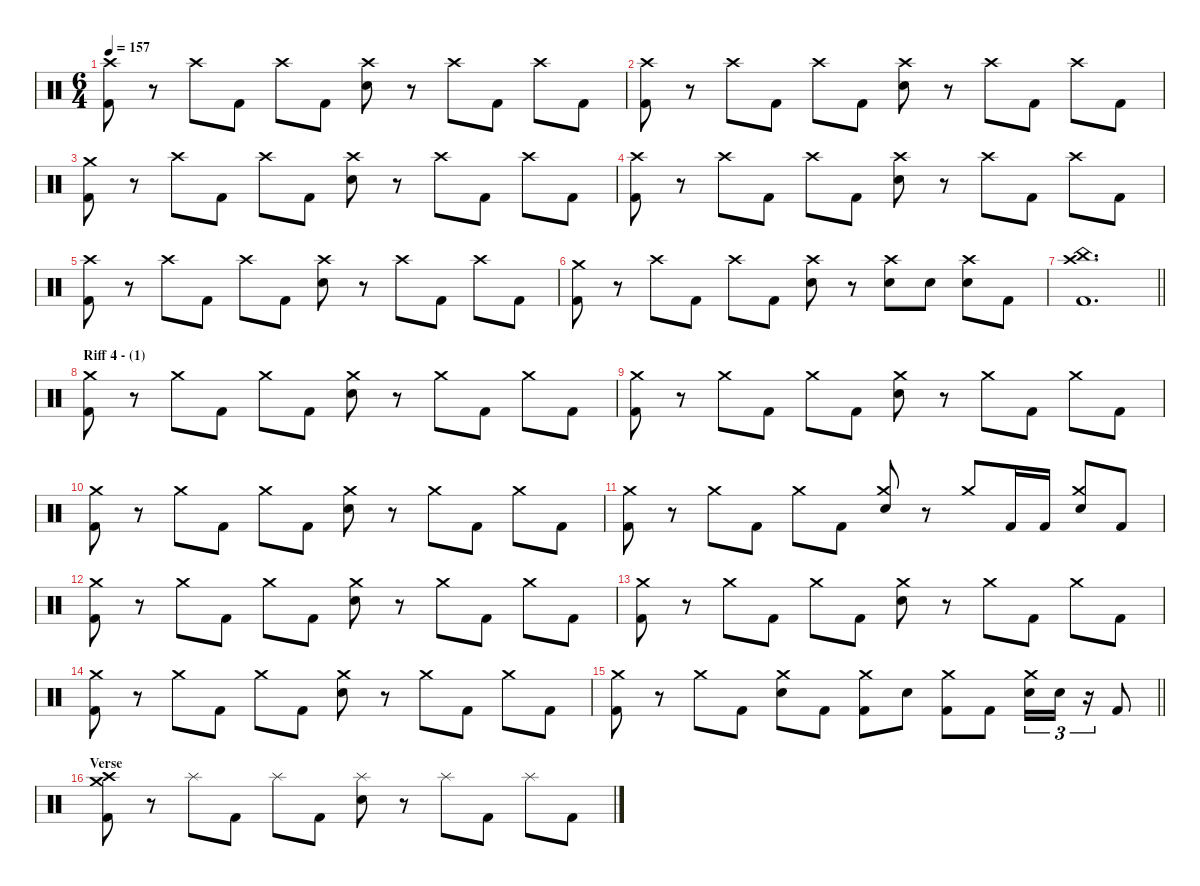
\defaultSystemsLayout 4
\hideDynamics
\bracketExtendMode nobrackets
\singleTrackTrackNamePolicy hidden
\multiTrackTrackNamePolicy hidden
\firstSystemTrackNameMode fullname
\firstSystemTrackNameOrientation horizontal
\otherSystemsTrackNameOrientation horizontal
\track ("Drums" "drm.") {defaultSystemsLayout 4 instrument percussion}
\staff {score}
\articulation defaults
\ts (6 4)
\tempo 157
\clef neutral
\ks c
("Crash high (hit)" "Kick (hit) 2").8{dy f beam Down} r.8{beam Down} "Crash high (hit)".8{beam Down} "Kick (hit) 2".8{beam Down} "Crash high (hit)".8{beam Down} "Kick (hit) 2".8{beam Down} ("Crash high (hit)" "Snare (hit) 2").8{beam Down} r.8{beam Down} "Crash high (hit)".8{beam Down} "Kick (hit) 2".8{beam Down} "Crash high (hit)".8{beam Down} "Kick (hit) 2".8{beam Down} |
("Crash high (hit)" "Kick (hit) 2").8{beam Down} r.8{beam Down} "Crash high (hit)".8{beam Down} "Kick (hit) 2".8{beam Down} "Crash high (hit)".8{beam Down} "Kick (hit) 2".8{beam Down} ("Crash high (hit)" "Snare (hit) 2").8{beam Down} r.8{beam Down} "Crash high (hit)".8{beam Down} "Kick (hit) 2".8{beam Down} "Crash high (hit)".8{beam Down} "Kick (hit) 2".8{beam Down} |
("Crash medium (hit)" "Kick (hit) 2").8{beam Down} r.8{beam Down} "Crash high (hit)".8{beam Down} "Kick (hit) 2".8{beam Down} "Crash high (hit)".8{beam Down} "Kick (hit) 2".8{beam Down} ("Crash high (hit)" "Snare (hit) 2").8{beam Down} r.8{beam Down} "Crash high (hit)".8{beam Down} "Kick (hit) 2".8{beam Down} "Crash high (hit)".8{beam Down} "Kick (hit) 2".8{beam Down} |
("Crash high (hit)" "Kick (hit) 2").8{beam Down} r.8{beam Down} "Crash high (hit)".8{beam Down} "Kick (hit) 2".8{beam Down} "Crash high (hit)".8{beam Down} "Kick (hit) 2".8{beam Down} ("Crash high (hit)" "Snare (hit) 2").8{beam Down} r.8{beam Down} "Crash high (hit)".8{beam Down} "Kick (hit) 2".8{beam Down} "Crash high (hit)".8{beam Down} "Kick (hit) 2".8{beam Down} |
("Crash high (hit)" "Kick (hit) 2").8{beam Down} r.8{beam Down} "Crash high (hit)".8{beam Down} "Kick (hit) 2".8{beam Down} "Crash high (hit)".8{beam Down} "Kick (hit) 2".8{beam Down} ("Crash high (hit)" "Snare (hit) 2").8{beam Down} r.8{beam Down} "Crash high (hit)".8{beam Down} "Kick (hit) 2".8{beam Down} "Crash high (hit)".8{beam Down} "Kick (hit) 2".8{beam Down} |
("Crash medium (hit)" "Kick (hit) 2").8{beam Down} r.8{beam Down} "Crash high (hit)".8{beam Down} "Kick (hit) 2".8{beam Down} "Crash high (hit)".8{beam Down} "Kick (hit) 2".8{beam Down} ("Crash high (hit)" "Snare (hit) 2").8{beam Down} r.8{beam Down} ("Crash high (hit)" "Snare (hit) 2").8{beam Down} "Snare (hit) 2".8{beam Down} ("Crash high (hit)" "Snare (hit) 2").8{beam Down} "Kick (hit) 2".8{beam Down} |
\barLineRight lightlight
("China (hit)" "Crash high (hit)" "Kick (hit) 2").1{d beam Down} |
\section ("" "Riff 4 - (1)")
("Crash medium (hit)" "Kick (hit) 2").8{beam Down} r.8{beam Down} "Crash medium (hit)".8{beam Down} "Kick (hit) 2".8{beam Down} "Crash medium (hit)".8{beam Down} "Kick (hit) 2".8{beam Down} ("Crash medium (hit)" "Snare (hit) 2").8{beam Down} r.8{beam Down} "Crash medium (hit)".8{beam Down} "Kick (hit) 2".8{beam Down} "Crash medium (hit)".8{beam Down} "Kick (hit) 2".8{beam Down} |
("Crash medium (hit)" "Kick (hit) 2").8{beam Down} r.8{beam Down} "Crash medium (hit)".8{beam Down} "Kick (hit) 2".8{beam Down} "Crash medium (hit)".8{beam Down} "Kick (hit) 2".8{beam Down} ("Crash medium (hit)" "Snare (hit) 2").8{beam Down} r.8{beam Down} "Crash medium (hit)".8{beam Down} "Kick (hit) 2".8{beam Down} "Crash medium (hit)".8{beam Down} "Kick (hit) 2".8{beam Down} |
("Crash medium (hit)" "Kick (hit) 2").8{beam Down} r.8{beam Down} "Crash medium (hit)".8{beam Down} "Kick (hit) 2".8{beam Down} "Crash medium (hit)".8{beam Down} "Kick (hit) 2".8{beam Down} ("Crash medium (hit)" "Snare (hit) 2").8{beam Down} r.8{beam Down} "Crash medium (hit)".8{beam Down} "Kick (hit) 2".8{beam Down} "Crash medium (hit)".8{beam Down} "Kick (hit) 2".8{beam Down} |
("Crash medium (hit)" "Kick (hit) 2").8{beam Down} r.8{beam Down} "Crash medium (hit)".8{beam Down} "Kick (hit) 2".8{beam Down} "Crash medium (hit)".8{beam Down} "Kick (hit) 2".8{beam Down} ("Crash medium (hit)" "Snare (hit) 2").8{beam Up} r.8{beam Up} "Crash medium (hit)".8{beam Up} "Kick (hit) 2".16{beam Up} "Kick (hit) 2".16{beam Up} ("Crash medium (hit)" "Snare (hit) 2").8{beam Up} "Kick (hit) 2".8{beam Up} |
("Crash medium (hit)" "Kick (hit) 2").8{beam Down} r.8{beam Down} "Crash medium (hit)".8{beam Down} "Kick (hit) 2".8{beam Down} "Crash medium (hit)".8{beam Down} "Kick (hit) 2".8{beam Down} ("Crash medium (hit)" "Snare (hit) 2").8{beam Down} r.8{beam Down} "Crash medium (hit)".8{beam Down} "Kick (hit) 2".8{beam Down} "Crash medium (hit)".8{beam Down} "Kick (hit) 2".8{beam Down} |
("Crash medium (hit)" "Kick (hit) 2").8{beam Down} r.8{beam Down} "Crash medium (hit)".8{beam Down} "Kick (hit) 2".8{beam Down} "Crash medium (hit)".8{beam Down} "Kick (hit) 2".8{beam Down} ("Crash medium (hit)" "Snare (hit) 2").8{beam Down} r.8{beam Down} "Crash medium (hit)".8{beam Down} "Kick (hit) 2".8{beam Down} "Crash medium (hit)".8{beam Down} "Kick (hit) 2".8{beam Down} |
("Crash medium (hit)" "Kick (hit) 2").8{beam Down} r.8{beam Down} "Crash medium (hit)".8{beam Down} "Kick (hit) 2".8{beam Down} "Crash medium (hit)".8{beam Down} "Kick (hit) 2".8{beam Down} ("Crash medium (hit)" "Snare (hit) 2").8{beam Down} r.8{beam Down} "Crash medium (hit)".8{beam Down} "Kick (hit) 2".8{beam Down} "Crash medium (hit)".8{beam Down} "Kick (hit) 2".8{beam Down} |
\barLineRight lightlight
("Crash medium (hit)" "Kick (hit) 2").8{beam Down} r.8{beam Down} "Crash medium (hit)".8{beam Down} "Kick (hit) 2".8{beam Down} ("Crash medium (hit)" "Snare (hit) 2").8{beam Down} "Kick (hit) 2".8{beam Down} ("Crash medium (hit)" "Kick (hit) 2").8{beam Down} "Snare (hit) 2".8{beam Down} ("Crash medium (hit)" "Kick (hit) 2").8{beam Down} "Kick (hit) 2".8{beam Down} ("Crash medium (hit)" "Snare (hit) 2").16{tu (3 2) beam Down} "Snare (hit) 2".16{tu (3 2) beam Down} r.16{tu (3 2) beam Down} "Kick (hit) 2".8{beam Up} |
\section ("" "Verse")
("Crash high (hit)" "Crash medium (hit)" "Kick (hit) 2").8{beam Down} r.8{beam Down} "Splash (hit)".8{beam Down} "Kick (hit) 2".8{beam Down} "Splash (hit)".8{beam Down} "Kick (hit) 2".8{beam Down} ("Splash (hit)" "Snare (hit) 2").8{beam Down} r.8{beam Down} "Splash (hit)".8{beam Down} "Kick (hit) 2".8{beam Down} "Splash (hit)".8{beam Down} "Kick (hit) 2".8{beam Down}
